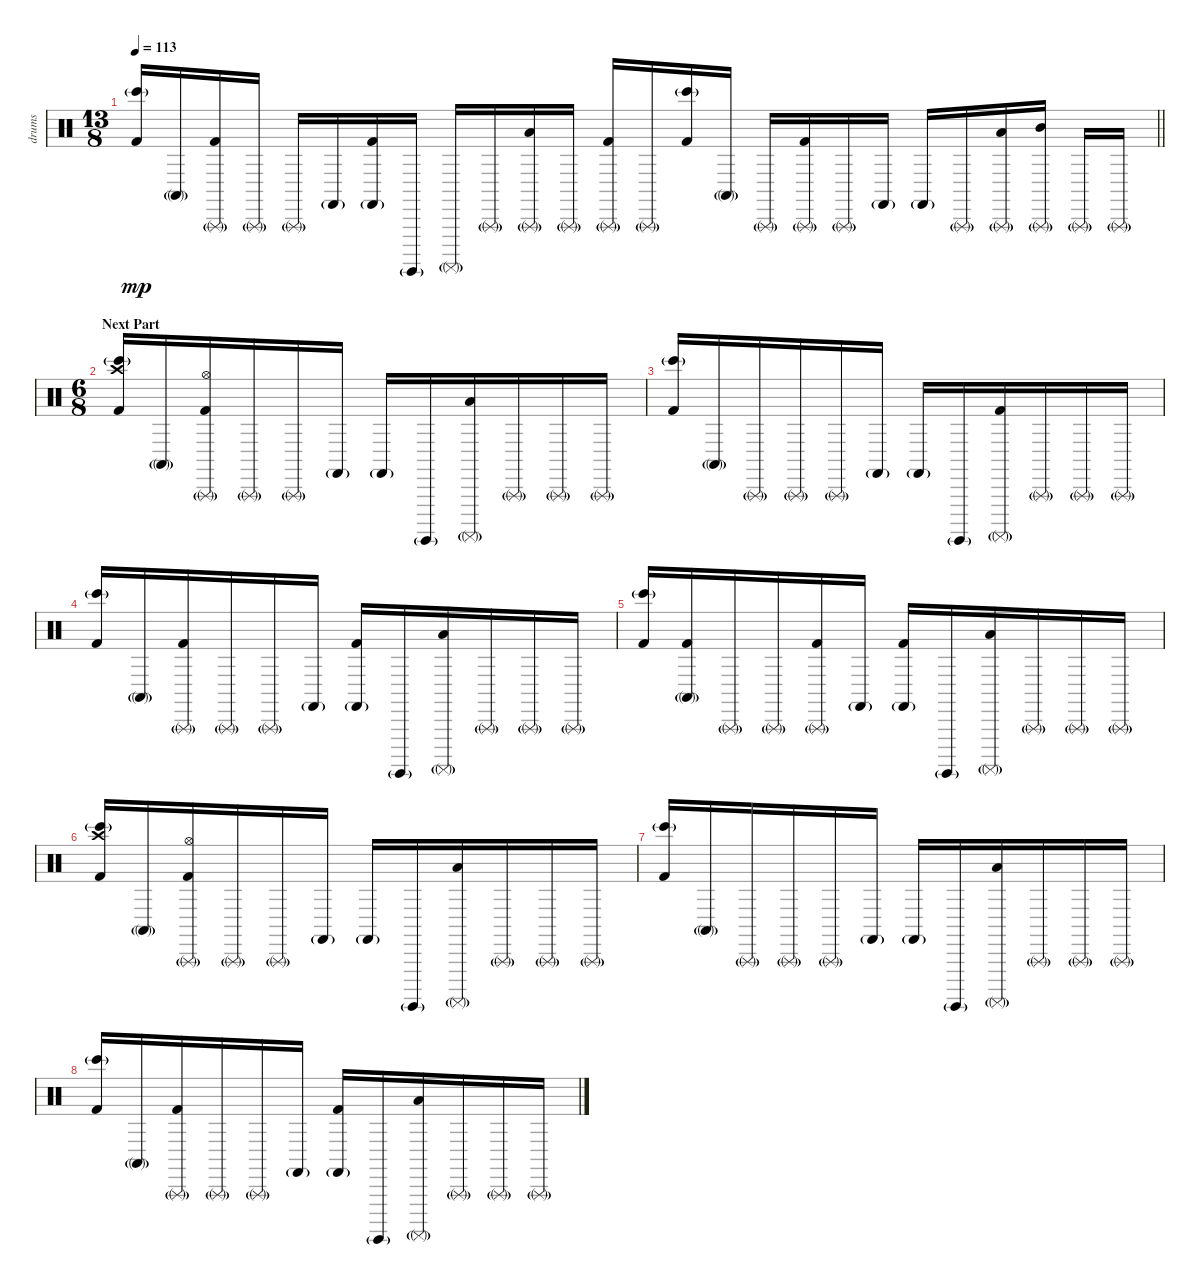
\track ("drums" "drums") {instrument percussion}
\staff {score}
\articulation defaults
\ts (13 8)
\tempo 113
\clef neutral
\barLineRight lightlight
\ks c
("Kick (hit) 2" "Bongo High (hit)"{g}).16{dy mp} "Conga high (mute)"{g}.16 ("Kick (hit) 2" "Triangle (rnute)"{g}).16 "Triangle (rnute)"{g}.16 "Triangle (rnute)"{g}.16 "Castanets (hit)"{g}.16 ("Kick (hit) 2" "Castanets (hit)"{g}).16 "Surdo (hit)"{g}.16 "Surdo (mute)"{g}.16 "Triangle (rnute)"{g}.16 ("Low Tom (hit)" "Triangle (rnute)"{g}).16 "Triangle (rnute)"{g}.16 ("Kick (hit) 2" "Triangle (rnute)"{g}).16 "Triangle (rnute)"{g}.16 ("Kick (hit) 2" "Bongo High (hit)"{g}).16 "Conga high (mute)"{g}.16 "Triangle (rnute)"{g}.16 ("Kick (hit) 2" "Triangle (rnute)"{g}).16 "Triangle (rnute)"{g}.16 "Castanets (hit)"{g}.16 "Castanets (hit)"{g}.16 "Triangle (rnute)"{g}.16 ("Low Tom (hit)" "Triangle (rnute)"{g}).16 ("Mid Tom (hit)" "Triangle (rnute)"{g}).16 "Triangle (rnute)"{g}.16 "Triangle (rnute)"{g}.16 |
\ts (6 8)
\section ("" "Next Part")
("Crash high (hit)" "Kick (hit) 2" "Bongo High (hit)"{g}).16 "Conga high (mute)"{g}.16 ("Hi-Hat (open)" "Kick (hit) 2" "Triangle (rnute)"{g}).16 "Triangle (rnute)"{g}.16 "Triangle (rnute)"{g}.16 "Castanets (hit)"{g}.16 "Castanets (hit)"{g}.16 "Surdo (hit)"{g}.16 ("Low Tom (hit)" "Surdo (mute)"{g}).16 "Triangle (rnute)"{g}.16 "Triangle (rnute)"{g}.16 "Triangle (rnute)"{g}.16 |
("Kick (hit) 2" "Bongo High (hit)"{g}).16 "Conga high (mute)"{g}.16 "Triangle (rnute)"{g}.16 "Triangle (rnute)"{g}.16 "Triangle (rnute)"{g}.16 "Castanets (hit)"{g}.16 "Castanets (hit)"{g}.16 "Surdo (hit)"{g}.16 ("Kick (hit) 2" "Surdo (mute)"{g}).16 "Triangle (rnute)"{g}.16 "Triangle (rnute)"{g}.16 "Triangle (rnute)"{g}.16 |
("Kick (hit) 2" "Bongo High (hit)"{g}).16 "Conga high (mute)"{g}.16 ("Kick (hit) 2" "Triangle (rnute)"{g}).16 "Triangle (rnute)"{g}.16 "Triangle (rnute)"{g}.16 "Castanets (hit)"{g}.16 ("Kick (hit) 2" "Castanets (hit)"{g}).16 "Surdo (hit)"{g}.16 ("Low Tom (hit)" "Surdo (mute)"{g}).16 "Triangle (rnute)"{g}.16 "Triangle (rnute)"{g}.16 "Triangle (rnute)"{g}.16 |
("Kick (hit) 2" "Bongo High (hit)"{g}).16 ("Kick (hit) 2" "Conga high (mute)"{g}).16 "Triangle (rnute)"{g}.16 "Triangle (rnute)"{g}.16 ("Kick (hit) 2" "Triangle (rnute)"{g}).16 "Castanets (hit)"{g}.16 ("Kick (hit) 2" "Castanets (hit)"{g}).16 "Surdo (hit)"{g}.16 ("Low Tom (hit)" "Surdo (mute)"{g}).16 "Triangle (rnute)"{g}.16 "Triangle (rnute)"{g}.16 "Triangle (rnute)"{g}.16 |
("Crash high (hit)" "Kick (hit) 2" "Bongo High (hit)"{g}).16 "Conga high (mute)"{g}.16 ("Hi-Hat (open)" "Kick (hit) 2" "Triangle (rnute)"{g}).16 "Triangle (rnute)"{g}.16 "Triangle (rnute)"{g}.16 "Castanets (hit)"{g}.16 "Castanets (hit)"{g}.16 "Surdo (hit)"{g}.16 ("Low Tom (hit)" "Surdo (mute)"{g}).16 "Triangle (rnute)"{g}.16 "Triangle (rnute)"{g}.16 "Triangle (rnute)"{g}.16 |
("Kick (hit) 2" "Bongo High (hit)"{g}).16 "Conga high (mute)"{g}.16 "Triangle (rnute)"{g}.16 "Triangle (rnute)"{g}.16 "Triangle (rnute)"{g}.16 "Castanets (hit)"{g}.16 "Castanets (hit)"{g}.16 "Surdo (hit)"{g}.16 ("Low Tom (hit)" "Surdo (mute)"{g}).16 "Triangle (rnute)"{g}.16 "Triangle (rnute)"{g}.16 "Triangle (rnute)"{g}.16 |
("Kick (hit) 2" "Bongo High (hit)"{g}).16 "Conga high (mute)"{g}.16 ("Kick (hit) 2" "Triangle (rnute)"{g}).16 "Triangle (rnute)"{g}.16 "Triangle (rnute)"{g}.16 "Castanets (hit)"{g}.16 ("Kick (hit) 2" "Castanets (hit)"{g}).16 "Surdo (hit)"{g}.16 ("Low Tom (hit)" "Surdo (mute)"{g}).16 "Triangle (rnute)"{g}.16 "Triangle (rnute)"{g}.16 "Triangle (rnute)"{g}.16
